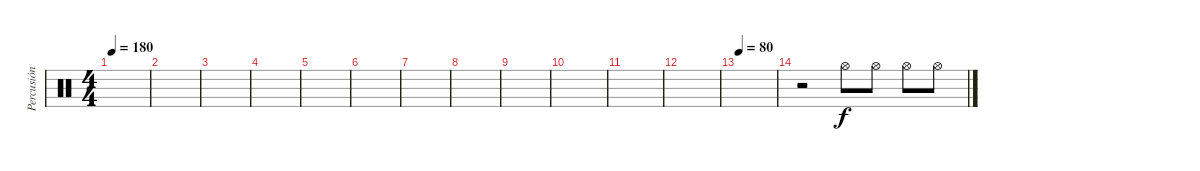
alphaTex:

\track ("Percusión" "Percusión") {instrument percussion}
\staff {score}
\articulation defaults
\ts (4 4)
\tempo 180
\clef neutral
\ks c
|
|
|
|
|
|
|
|
|
|
|
|
\tempo 80
|
r.2 "Hi-Hat (open)".8 "Hi-Hat (open)".8 "Hi-Hat (open)".8 "Hi-Hat (open)".8
